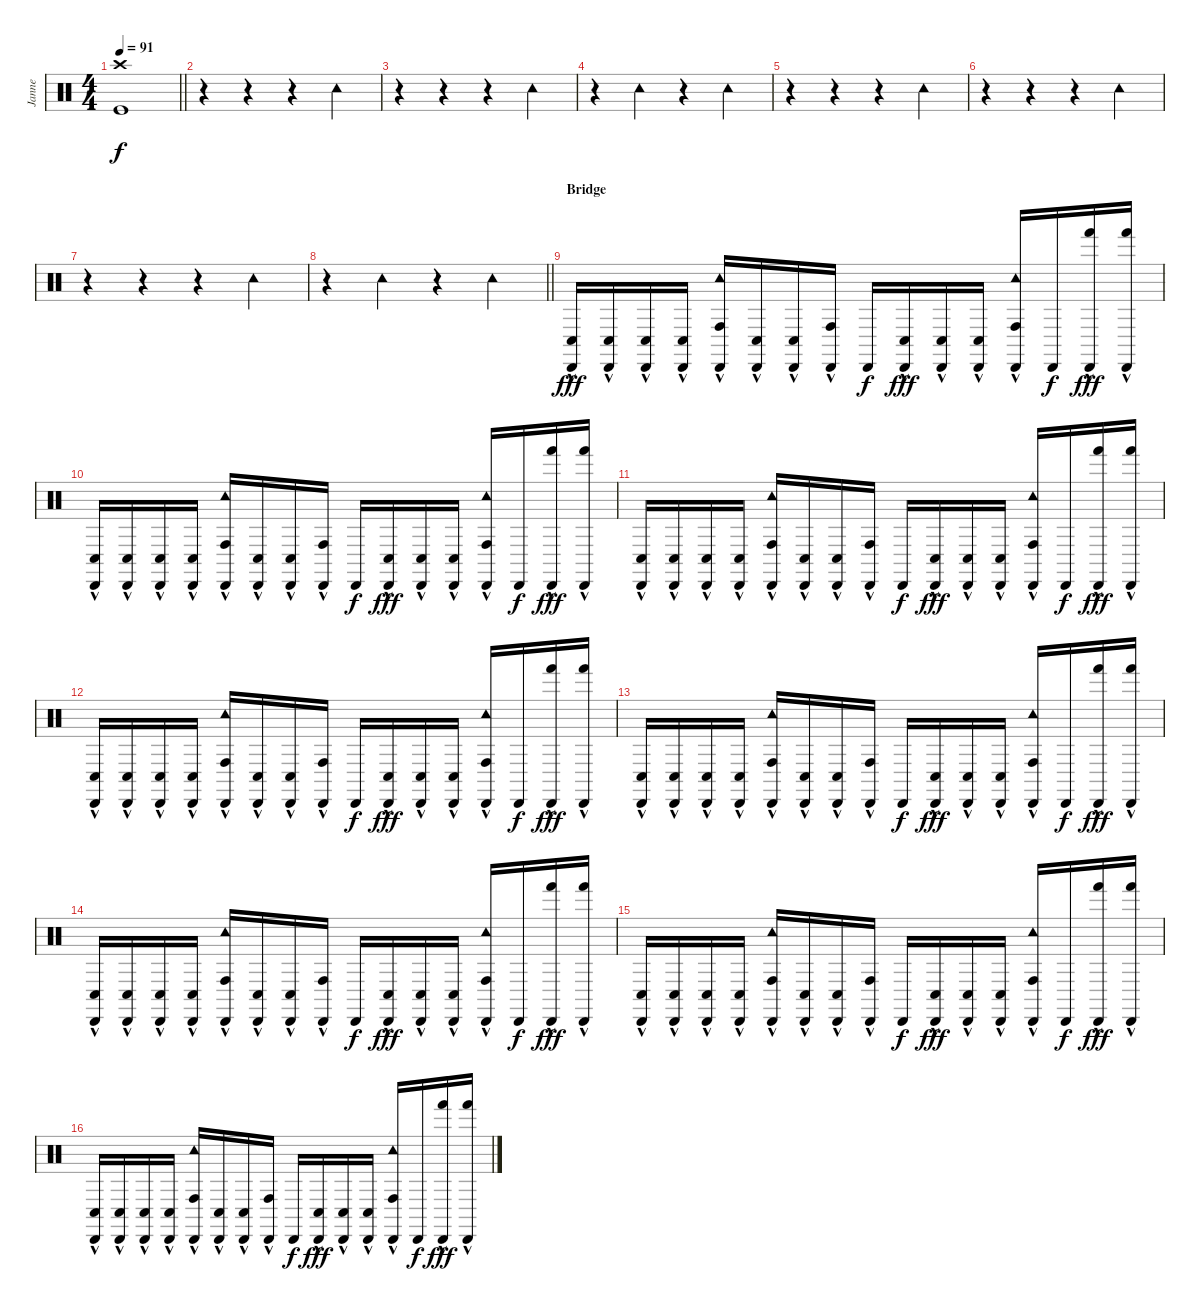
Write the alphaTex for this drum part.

\track ("Janne" "Janne") {instrument percussion}
\staff {score}
\articulation defaults
\ts (4 4)
\section ("" "")
\tempo 91
\clef neutral
\barLineRight lightlight
\ks c
("Crash high (hit)" "Kick (hit)").1{dy f} |
\section ("" "")
r.4 r.4 r.4 "Tambourine (hit)".4 |
r.4 r.4 r.4 "Tambourine (hit)".4 |
r.4 "Tambourine (hit)".4 r.4 "Tambourine (hit)".4 |
r.4 r.4 r.4 "Tambourine (hit)".4 |
r.4 r.4 r.4 "Tambourine (hit)".4 |
r.4 r.4 r.4 "Tambourine (hit)".4 |
\barLineRight lightlight
r.4 "Tambourine (hit)".4 r.4 "Tambourine (hit)".4 |
\section ("" "Bridge")
("Cabasa (hit)" "Conga low (hit)"{hac}).16{dy fff} ("Cabasa (hit)" "Conga low (hit)"{hac}).16 ("Cabasa (hit)" "Conga low (hit)"{hac}).16 ("Cabasa (hit)" "Conga low (hit)"{hac}).16 ("Cabasa (hit)" "Tambourine (hit)" "Conga high (hit)"{hac}).16 ("Cabasa (hit)" "Conga low (hit)"{hac}).16 ("Cabasa (hit)" "Conga low (hit)"{hac}).16 ("Cabasa (hit)" "Conga high (hit)"{hac}).16 "Cabasa (hit)".16{dy f} ("Cabasa (hit)" "Conga low (hit)"{hac}).16{dy fff} ("Cabasa (hit)" "Conga low (hit)"{hac}).16 ("Cabasa (hit)" "Conga low (hit)"{hac}).16 ("Cabasa (hit)" "Tambourine (hit)" "Conga high (hit)"{hac}).16 "Cabasa (hit)".16{dy f} ("Cabasa (hit)" "Hand (hit)"{hac}).16{dy fff} ("Cabasa (hit)" "Hand (hit)"{hac}).16 |
("Cabasa (hit)" "Conga low (hit)"{hac}).16 ("Cabasa (hit)" "Conga low (hit)"{hac}).16 ("Cabasa (hit)" "Conga low (hit)"{hac}).16 ("Cabasa (hit)" "Conga low (hit)"{hac}).16 ("Cabasa (hit)" "Tambourine (hit)" "Conga high (hit)"{hac}).16 ("Cabasa (hit)" "Conga low (hit)"{hac}).16 ("Cabasa (hit)" "Conga low (hit)"{hac}).16 ("Cabasa (hit)" "Conga high (hit)"{hac}).16 "Cabasa (hit)".16{dy f} ("Cabasa (hit)" "Conga low (hit)"{hac}).16{dy fff} ("Cabasa (hit)" "Conga low (hit)"{hac}).16 ("Cabasa (hit)" "Conga low (hit)"{hac}).16 ("Cabasa (hit)" "Tambourine (hit)" "Conga high (hit)"{hac}).16 "Cabasa (hit)".16{dy f} ("Cabasa (hit)" "Hand (hit)"{hac}).16{dy fff} ("Cabasa (hit)" "Hand (hit)"{hac}).16 |
("Cabasa (hit)" "Conga low (hit)"{hac}).16 ("Cabasa (hit)" "Conga low (hit)"{hac}).16 ("Cabasa (hit)" "Conga low (hit)"{hac}).16 ("Cabasa (hit)" "Conga low (hit)"{hac}).16 ("Cabasa (hit)" "Tambourine (hit)" "Conga high (hit)"{hac}).16 ("Cabasa (hit)" "Conga low (hit)"{hac}).16 ("Cabasa (hit)" "Conga low (hit)"{hac}).16 ("Cabasa (hit)" "Conga high (hit)"{hac}).16 "Cabasa (hit)".16{dy f} ("Cabasa (hit)" "Conga low (hit)"{hac}).16{dy fff} ("Cabasa (hit)" "Conga low (hit)"{hac}).16 ("Cabasa (hit)" "Conga low (hit)"{hac}).16 ("Cabasa (hit)" "Tambourine (hit)" "Conga high (hit)"{hac}).16 "Cabasa (hit)".16{dy f} ("Cabasa (hit)" "Hand (hit)"{hac}).16{dy fff} ("Cabasa (hit)" "Hand (hit)"{hac}).16 |
("Cabasa (hit)" "Conga low (hit)"{hac}).16 ("Cabasa (hit)" "Conga low (hit)"{hac}).16 ("Cabasa (hit)" "Conga low (hit)"{hac}).16 ("Cabasa (hit)" "Conga low (hit)"{hac}).16 ("Cabasa (hit)" "Tambourine (hit)" "Conga high (hit)"{hac}).16 ("Cabasa (hit)" "Conga low (hit)"{hac}).16 ("Cabasa (hit)" "Conga low (hit)"{hac}).16 ("Cabasa (hit)" "Conga high (hit)"{hac}).16 "Cabasa (hit)".16{dy f} ("Cabasa (hit)" "Conga low (hit)"{hac}).16{dy fff} ("Cabasa (hit)" "Conga low (hit)"{hac}).16 ("Cabasa (hit)" "Conga low (hit)"{hac}).16 ("Cabasa (hit)" "Tambourine (hit)" "Conga high (hit)"{hac}).16 "Cabasa (hit)".16{dy f} ("Cabasa (hit)" "Hand (hit)"{hac}).16{dy fff} ("Cabasa (hit)" "Hand (hit)"{hac}).16 |
("Cabasa (hit)" "Conga low (hit)"{hac}).16 ("Cabasa (hit)" "Conga low (hit)"{hac}).16 ("Cabasa (hit)" "Conga low (hit)"{hac}).16 ("Cabasa (hit)" "Conga low (hit)"{hac}).16 ("Cabasa (hit)" "Tambourine (hit)" "Conga high (hit)"{hac}).16 ("Cabasa (hit)" "Conga low (hit)"{hac}).16 ("Cabasa (hit)" "Conga low (hit)"{hac}).16 ("Cabasa (hit)" "Conga high (hit)"{hac}).16 "Cabasa (hit)".16{dy f} ("Cabasa (hit)" "Conga low (hit)"{hac}).16{dy fff} ("Cabasa (hit)" "Conga low (hit)"{hac}).16 ("Cabasa (hit)" "Conga low (hit)"{hac}).16 ("Cabasa (hit)" "Tambourine (hit)" "Conga high (hit)"{hac}).16 "Cabasa (hit)".16{dy f} ("Cabasa (hit)" "Hand (hit)"{hac}).16{dy fff} ("Cabasa (hit)" "Hand (hit)"{hac}).16 |
("Cabasa (hit)" "Conga low (hit)"{hac}).16 ("Cabasa (hit)" "Conga low (hit)"{hac}).16 ("Cabasa (hit)" "Conga low (hit)"{hac}).16 ("Cabasa (hit)" "Conga low (hit)"{hac}).16 ("Cabasa (hit)" "Tambourine (hit)" "Conga high (hit)"{hac}).16 ("Cabasa (hit)" "Conga low (hit)"{hac}).16 ("Cabasa (hit)" "Conga low (hit)"{hac}).16 ("Cabasa (hit)" "Conga high (hit)"{hac}).16 "Cabasa (hit)".16{dy f} ("Cabasa (hit)" "Conga low (hit)"{hac}).16{dy fff} ("Cabasa (hit)" "Conga low (hit)"{hac}).16 ("Cabasa (hit)" "Conga low (hit)"{hac}).16 ("Cabasa (hit)" "Tambourine (hit)" "Conga high (hit)"{hac}).16 "Cabasa (hit)".16{dy f} ("Cabasa (hit)" "Hand (hit)"{hac}).16{dy fff} ("Cabasa (hit)" "Hand (hit)"{hac}).16 |
("Cabasa (hit)" "Conga low (hit)"{hac}).16 ("Cabasa (hit)" "Conga low (hit)"{hac}).16 ("Cabasa (hit)" "Conga low (hit)"{hac}).16 ("Cabasa (hit)" "Conga low (hit)"{hac}).16 ("Cabasa (hit)" "Tambourine (hit)" "Conga high (hit)"{hac}).16 ("Cabasa (hit)" "Conga low (hit)"{hac}).16 ("Cabasa (hit)" "Conga low (hit)"{hac}).16 ("Cabasa (hit)" "Conga high (hit)"{hac}).16 "Cabasa (hit)".16{dy f} ("Cabasa (hit)" "Conga low (hit)"{hac}).16{dy fff} ("Cabasa (hit)" "Conga low (hit)"{hac}).16 ("Cabasa (hit)" "Conga low (hit)"{hac}).16 ("Cabasa (hit)" "Tambourine (hit)" "Conga high (hit)"{hac}).16 "Cabasa (hit)".16{dy f} ("Cabasa (hit)" "Hand (hit)"{hac}).16{dy fff} ("Cabasa (hit)" "Hand (hit)"{hac}).16 |
("Cabasa (hit)" "Conga low (hit)"{hac}).16 ("Cabasa (hit)" "Conga low (hit)"{hac}).16 ("Cabasa (hit)" "Conga low (hit)"{hac}).16 ("Cabasa (hit)" "Conga low (hit)"{hac}).16 ("Cabasa (hit)" "Tambourine (hit)" "Conga high (hit)"{hac}).16 ("Cabasa (hit)" "Conga low (hit)"{hac}).16 ("Cabasa (hit)" "Conga low (hit)"{hac}).16 ("Cabasa (hit)" "Conga high (hit)"{hac}).16 "Cabasa (hit)".16{dy f} ("Cabasa (hit)" "Conga low (hit)"{hac}).16{dy fff} ("Cabasa (hit)" "Conga low (hit)"{hac}).16 ("Cabasa (hit)" "Conga low (hit)"{hac}).16 ("Cabasa (hit)" "Tambourine (hit)" "Conga high (hit)"{hac}).16 "Cabasa (hit)".16{dy f} ("Cabasa (hit)" "Hand (hit)"{hac}).16{dy fff} ("Cabasa (hit)" "Hand (hit)"{hac}).16
